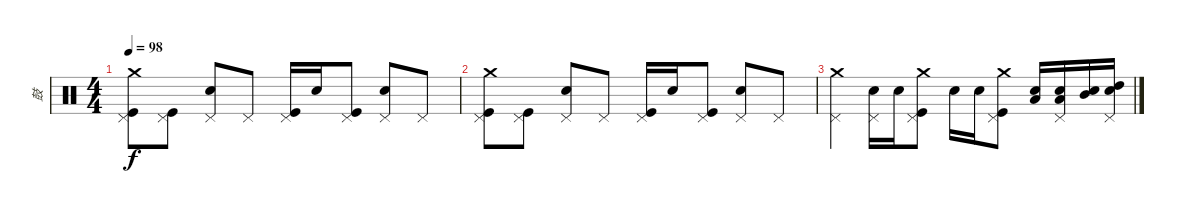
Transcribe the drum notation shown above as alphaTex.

\track ("鼓" "鼓") {instrument percussion}
\staff {score}
\articulation defaults
\ts (4 4)
\tempo 98
\clef neutral
\ks c
("Pedal Hi-Hat (hit)" "Kick (hit)" "Crash medium (hit)").8{dy f} ("Pedal Hi-Hat (hit)" "Kick (hit)").8 ("Pedal Hi-Hat (hit)" "Electric Snare (hit)").8 "Pedal Hi-Hat (hit)".8 ("Pedal Hi-Hat (hit)" "Kick (hit)").16 "Electric Snare (hit)".16 ("Pedal Hi-Hat (hit)" "Kick (hit)").8 ("Pedal Hi-Hat (hit)" "Electric Snare (hit)").8 "Pedal Hi-Hat (hit)".8 |
("Pedal Hi-Hat (hit)" "Kick (hit)" "Crash medium (hit)").8 ("Pedal Hi-Hat (hit)" "Kick (hit)").8 ("Pedal Hi-Hat (hit)" "Electric Snare (hit)").8 "Pedal Hi-Hat (hit)".8 ("Pedal Hi-Hat (hit)" "Kick (hit)").16 "Electric Snare (hit)".16 ("Pedal Hi-Hat (hit)" "Kick (hit)").8 ("Pedal Hi-Hat (hit)" "Electric Snare (hit)").8 "Pedal Hi-Hat (hit)".8 |
("Pedal Hi-Hat (hit)" "Crash medium (hit)").4 ("Pedal Hi-Hat (hit)" "Electric Snare (hit)").16 "Electric Snare (hit)".16 ("Pedal Hi-Hat (hit)" "Kick (hit)" "Crash medium (hit)").8 "Electric Snare (hit)".16 "Electric Snare (hit)".16 ("Pedal Hi-Hat (hit)" "Kick (hit)" "Crash medium (hit)").8 ("Low Tom (hit)" "Electric Snare (hit)").16 ("Pedal Hi-Hat (hit)" "Low Tom (hit)" "Electric Snare (hit)").16 ("Mid Tom (hit)" "Electric Snare (hit)").16 ("Pedal Hi-Hat (hit)" "High Tom (hit)" "Electric Snare (hit)").16
